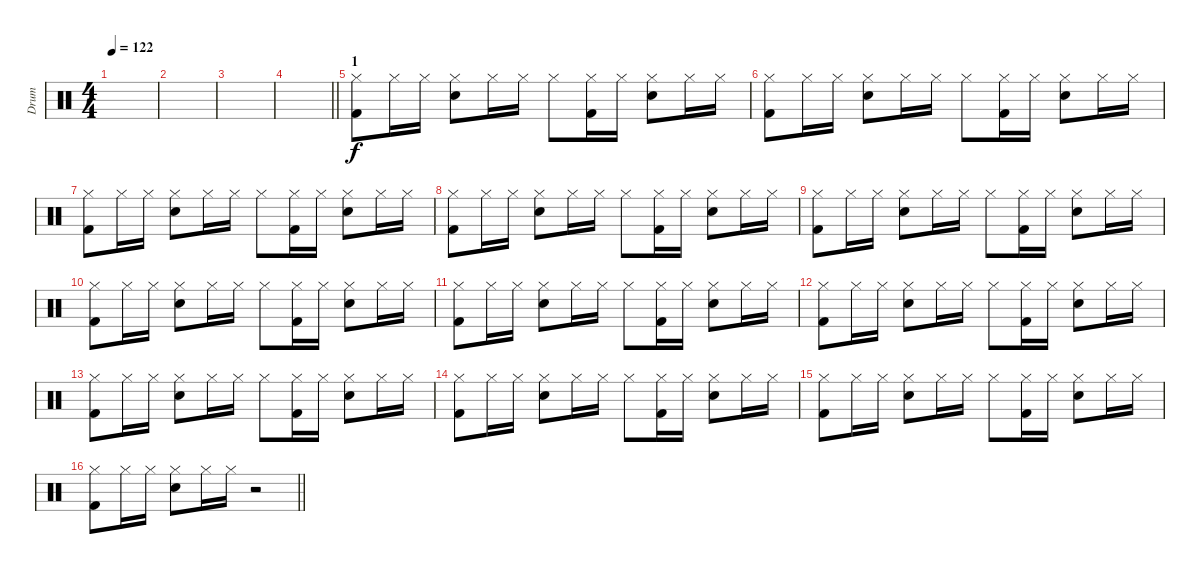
\track ("Drum" "Drum") {instrument percussion}
\staff {score}
\articulation defaults
\ts (4 4)
\tempo 122
\clef neutral
\ks c
|
|
|
\barLineRight lightlight
|
\section ("" "1")
("Hi-Hat (closed)" "Kick (hit) 2").8 "Hi-Hat (closed)".16 "Hi-Hat (closed)".16 ("Hi-Hat (closed)" "Electric Snare (hit)").8 "Hi-Hat (closed)".16 "Hi-Hat (closed)".16 "Hi-Hat (closed)".8 ("Hi-Hat (closed)" "Kick (hit) 2").16 "Hi-Hat (closed)".16 ("Hi-Hat (closed)" "Electric Snare (hit)").8 "Hi-Hat (closed)".16 "Hi-Hat (closed)".16 |
("Hi-Hat (closed)" "Kick (hit) 2").8 "Hi-Hat (closed)".16 "Hi-Hat (closed)".16 ("Hi-Hat (closed)" "Electric Snare (hit)").8 "Hi-Hat (closed)".16 "Hi-Hat (closed)".16 "Hi-Hat (closed)".8 ("Hi-Hat (closed)" "Kick (hit) 2").16 "Hi-Hat (closed)".16 ("Hi-Hat (closed)" "Electric Snare (hit)").8 "Hi-Hat (closed)".16 "Hi-Hat (closed)".16 |
("Hi-Hat (closed)" "Kick (hit) 2").8 "Hi-Hat (closed)".16 "Hi-Hat (closed)".16 ("Hi-Hat (closed)" "Electric Snare (hit)").8 "Hi-Hat (closed)".16 "Hi-Hat (closed)".16 "Hi-Hat (closed)".8 ("Hi-Hat (closed)" "Kick (hit) 2").16 "Hi-Hat (closed)".16 ("Hi-Hat (closed)" "Electric Snare (hit)").8 "Hi-Hat (closed)".16 "Hi-Hat (closed)".16 |
("Hi-Hat (closed)" "Kick (hit) 2").8 "Hi-Hat (closed)".16 "Hi-Hat (closed)".16 ("Hi-Hat (closed)" "Electric Snare (hit)").8 "Hi-Hat (closed)".16 "Hi-Hat (closed)".16 "Hi-Hat (closed)".8 ("Hi-Hat (closed)" "Kick (hit) 2").16 "Hi-Hat (closed)".16 ("Hi-Hat (closed)" "Electric Snare (hit)").8 "Hi-Hat (closed)".16 "Hi-Hat (closed)".16 |
("Hi-Hat (closed)" "Kick (hit) 2").8 "Hi-Hat (closed)".16 "Hi-Hat (closed)".16 ("Hi-Hat (closed)" "Electric Snare (hit)").8 "Hi-Hat (closed)".16 "Hi-Hat (closed)".16 "Hi-Hat (closed)".8 ("Hi-Hat (closed)" "Kick (hit) 2").16 "Hi-Hat (closed)".16 ("Hi-Hat (closed)" "Electric Snare (hit)").8 "Hi-Hat (closed)".16 "Hi-Hat (closed)".16 |
("Hi-Hat (closed)" "Kick (hit) 2").8 "Hi-Hat (closed)".16 "Hi-Hat (closed)".16 ("Hi-Hat (closed)" "Electric Snare (hit)").8 "Hi-Hat (closed)".16 "Hi-Hat (closed)".16 "Hi-Hat (closed)".8 ("Hi-Hat (closed)" "Kick (hit) 2").16 "Hi-Hat (closed)".16 ("Hi-Hat (closed)" "Electric Snare (hit)").8 "Hi-Hat (closed)".16 "Hi-Hat (closed)".16 |
("Hi-Hat (closed)" "Kick (hit) 2").8 "Hi-Hat (closed)".16 "Hi-Hat (closed)".16 ("Hi-Hat (closed)" "Electric Snare (hit)").8 "Hi-Hat (closed)".16 "Hi-Hat (closed)".16 "Hi-Hat (closed)".8 ("Hi-Hat (closed)" "Kick (hit) 2").16 "Hi-Hat (closed)".16 ("Hi-Hat (closed)" "Electric Snare (hit)").8 "Hi-Hat (closed)".16 "Hi-Hat (closed)".16 |
("Hi-Hat (closed)" "Kick (hit) 2").8 "Hi-Hat (closed)".16 "Hi-Hat (closed)".16 ("Hi-Hat (closed)" "Electric Snare (hit)").8 "Hi-Hat (closed)".16 "Hi-Hat (closed)".16 "Hi-Hat (closed)".8 ("Hi-Hat (closed)" "Kick (hit) 2").16 "Hi-Hat (closed)".16 ("Hi-Hat (closed)" "Electric Snare (hit)").8 "Hi-Hat (closed)".16 "Hi-Hat (closed)".16 |
("Hi-Hat (closed)" "Kick (hit) 2").8 "Hi-Hat (closed)".16 "Hi-Hat (closed)".16 ("Hi-Hat (closed)" "Electric Snare (hit)").8 "Hi-Hat (closed)".16 "Hi-Hat (closed)".16 "Hi-Hat (closed)".8 ("Hi-Hat (closed)" "Kick (hit) 2").16 "Hi-Hat (closed)".16 ("Hi-Hat (closed)" "Electric Snare (hit)").8 "Hi-Hat (closed)".16 "Hi-Hat (closed)".16 |
("Hi-Hat (closed)" "Kick (hit) 2").8 "Hi-Hat (closed)".16 "Hi-Hat (closed)".16 ("Hi-Hat (closed)" "Electric Snare (hit)").8 "Hi-Hat (closed)".16 "Hi-Hat (closed)".16 "Hi-Hat (closed)".8 ("Hi-Hat (closed)" "Kick (hit) 2").16 "Hi-Hat (closed)".16 ("Hi-Hat (closed)" "Electric Snare (hit)").8 "Hi-Hat (closed)".16 "Hi-Hat (closed)".16 |
("Hi-Hat (closed)" "Kick (hit) 2").8 "Hi-Hat (closed)".16 "Hi-Hat (closed)".16 ("Hi-Hat (closed)" "Electric Snare (hit)").8 "Hi-Hat (closed)".16 "Hi-Hat (closed)".16 "Hi-Hat (closed)".8 ("Hi-Hat (closed)" "Kick (hit) 2").16 "Hi-Hat (closed)".16 ("Hi-Hat (closed)" "Electric Snare (hit)").8 "Hi-Hat (closed)".16 "Hi-Hat (closed)".16 |
\barLineRight lightlight
("Hi-Hat (closed)" "Kick (hit) 2").8 "Hi-Hat (closed)".16 "Hi-Hat (closed)".16 ("Hi-Hat (closed)" "Electric Snare (hit)").8 "Hi-Hat (closed)".16 "Hi-Hat (closed)".16 r.2
